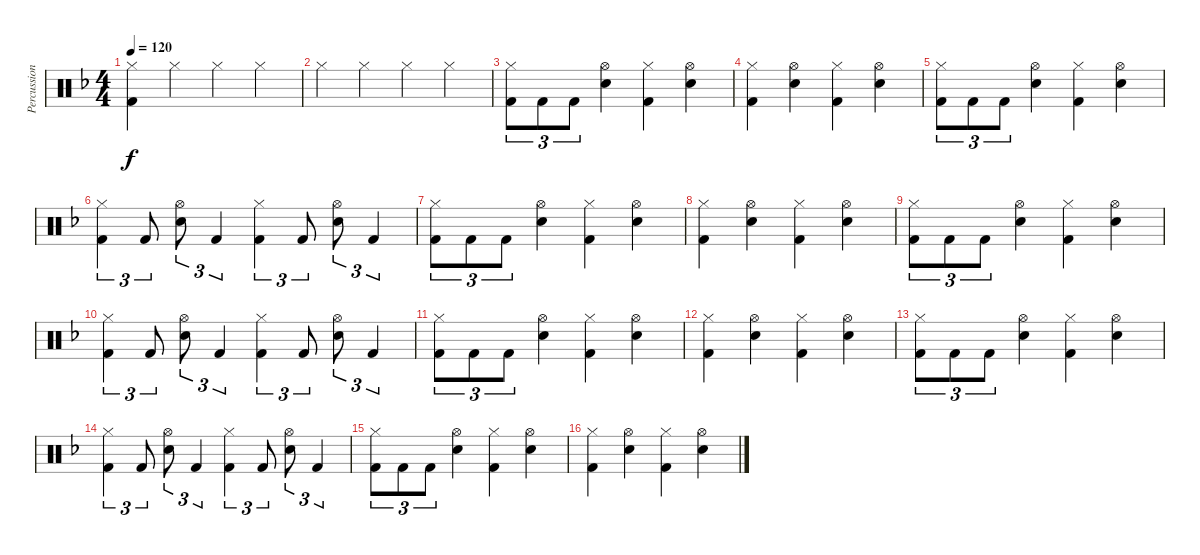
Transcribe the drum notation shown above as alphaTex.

\track ("Percussion" "Percussion") {instrument percussion}
\staff {score}
\articulation defaults
\ts (4 4)
\tempo 120
\clef neutral
\ks dminor
("Hi-Hat (closed)" "Kick (hit) 2").4{dy f} "Hi-Hat (closed)".4 "Hi-Hat (closed)".4 "Hi-Hat (closed)".4 |
"Hi-Hat (closed)".4 "Hi-Hat (closed)".4 "Hi-Hat (closed)".4 "Hi-Hat (closed)".4 |
("Hi-Hat (closed)" "Kick (hit) 2").8{tu (3 2)} "Kick (hit) 2".8{tu (3 2)} "Kick (hit) 2".8{tu (3 2)} ("Hi-Hat (open)" "Electric Snare (hit)").4 ("Hi-Hat (closed)" "Kick (hit) 2").4 ("Hi-Hat (open)" "Electric Snare (hit)").4 |
("Hi-Hat (closed)" "Kick (hit) 2").4 ("Hi-Hat (open)" "Electric Snare (hit)").4 ("Hi-Hat (closed)" "Kick (hit) 2").4 ("Hi-Hat (open)" "Electric Snare (hit)").4 |
("Hi-Hat (closed)" "Kick (hit) 2").8{tu (3 2)} "Kick (hit) 2".8{tu (3 2)} "Kick (hit) 2".8{tu (3 2)} ("Hi-Hat (open)" "Electric Snare (hit)").4 ("Hi-Hat (closed)" "Kick (hit) 2").4 ("Hi-Hat (open)" "Electric Snare (hit)").4 |
("Hi-Hat (closed)" "Kick (hit) 2").4{tu (3 2)} "Kick (hit) 2".8{tu (3 2)} ("Hi-Hat (open)" "Electric Snare (hit)").8{tu (3 2)} "Kick (hit) 2".4{tu (3 2)} ("Hi-Hat (closed)" "Kick (hit) 2").4{tu (3 2)} "Kick (hit) 2".8{tu (3 2)} ("Hi-Hat (open)" "Electric Snare (hit)").8{tu (3 2)} "Kick (hit) 2".4{tu (3 2)} |
("Hi-Hat (closed)" "Kick (hit) 2").8{tu (3 2)} "Kick (hit) 2".8{tu (3 2)} "Kick (hit) 2".8{tu (3 2)} ("Hi-Hat (open)" "Electric Snare (hit)").4 ("Hi-Hat (closed)" "Kick (hit) 2").4 ("Hi-Hat (open)" "Electric Snare (hit)").4 |
("Hi-Hat (closed)" "Kick (hit) 2").4 ("Hi-Hat (open)" "Electric Snare (hit)").4 ("Hi-Hat (closed)" "Kick (hit) 2").4 ("Hi-Hat (open)" "Electric Snare (hit)").4 |
("Hi-Hat (closed)" "Kick (hit) 2").8{tu (3 2)} "Kick (hit) 2".8{tu (3 2)} "Kick (hit) 2".8{tu (3 2)} ("Hi-Hat (open)" "Electric Snare (hit)").4 ("Hi-Hat (closed)" "Kick (hit) 2").4 ("Hi-Hat (open)" "Electric Snare (hit)").4 |
("Hi-Hat (closed)" "Kick (hit) 2").4{tu (3 2)} "Kick (hit) 2".8{tu (3 2)} ("Hi-Hat (open)" "Electric Snare (hit)").8{tu (3 2)} "Kick (hit) 2".4{tu (3 2)} ("Hi-Hat (closed)" "Kick (hit) 2").4{tu (3 2)} "Kick (hit) 2".8{tu (3 2)} ("Hi-Hat (open)" "Electric Snare (hit)").8{tu (3 2)} "Kick (hit) 2".4{tu (3 2)} |
("Hi-Hat (closed)" "Kick (hit) 2").8{tu (3 2)} "Kick (hit) 2".8{tu (3 2)} "Kick (hit) 2".8{tu (3 2)} ("Hi-Hat (open)" "Electric Snare (hit)").4 ("Hi-Hat (closed)" "Kick (hit) 2").4 ("Hi-Hat (open)" "Electric Snare (hit)").4 |
("Hi-Hat (closed)" "Kick (hit) 2").4 ("Hi-Hat (open)" "Electric Snare (hit)").4 ("Hi-Hat (closed)" "Kick (hit) 2").4 ("Hi-Hat (open)" "Electric Snare (hit)").4 |
("Hi-Hat (closed)" "Kick (hit) 2").8{tu (3 2)} "Kick (hit) 2".8{tu (3 2)} "Kick (hit) 2".8{tu (3 2)} ("Hi-Hat (open)" "Electric Snare (hit)").4 ("Hi-Hat (closed)" "Kick (hit) 2").4 ("Hi-Hat (open)" "Electric Snare (hit)").4 |
("Hi-Hat (closed)" "Kick (hit) 2").4{tu (3 2)} "Kick (hit) 2".8{tu (3 2)} ("Hi-Hat (open)" "Electric Snare (hit)").8{tu (3 2)} "Kick (hit) 2".4{tu (3 2)} ("Hi-Hat (closed)" "Kick (hit) 2").4{tu (3 2)} "Kick (hit) 2".8{tu (3 2)} ("Hi-Hat (open)" "Electric Snare (hit)").8{tu (3 2)} "Kick (hit) 2".4{tu (3 2)} |
("Hi-Hat (closed)" "Kick (hit) 2").8{tu (3 2)} "Kick (hit) 2".8{tu (3 2)} "Kick (hit) 2".8{tu (3 2)} ("Hi-Hat (open)" "Electric Snare (hit)").4 ("Hi-Hat (closed)" "Kick (hit) 2").4 ("Hi-Hat (open)" "Electric Snare (hit)").4 |
("Hi-Hat (closed)" "Kick (hit) 2").4 ("Hi-Hat (open)" "Electric Snare (hit)").4 ("Hi-Hat (closed)" "Kick (hit) 2").4 ("Hi-Hat (open)" "Electric Snare (hit)").4
